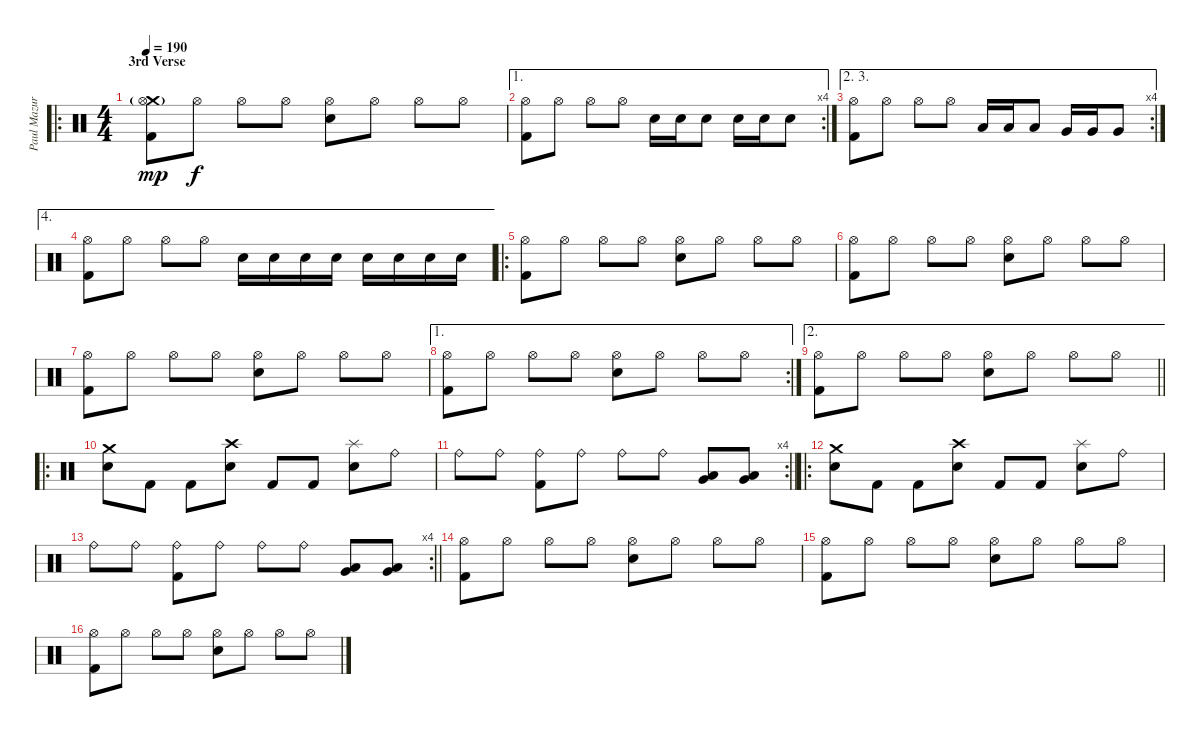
\track ("Paul Mazurkiewicz" "Paul Mazur") {instrument percussion}
\staff {score}
\articulation defaults
\ro
\ts (4 4)
\section ("" "3rd Verse")
\tempo 190
\clef neutral
\ks c
("Crash medium (hit)"{g} "Hi-Hat (open)" "Kick (hit) 2").8{dy mp} "Hi-Hat (open)".8{dy f} "Hi-Hat (open)".8 "Hi-Hat (open)".8 ("Hi-Hat (open)" "Electric Snare (hit)").8 "Hi-Hat (open)".8 "Hi-Hat (open)".8 "Hi-Hat (open)".8 |
\ae 1
\rc 4
("Hi-Hat (open)" "Kick (hit) 2").8 "Hi-Hat (open)".8 "Hi-Hat (open)".8 "Hi-Hat (open)".8 "Electric Snare (hit)".16 "Electric Snare (hit)".16 "Electric Snare (hit)".8 "Electric Snare (hit)".16 "Electric Snare (hit)".16 "Electric Snare (hit)".8 |
\ae (2 3)
\rc 4
("Hi-Hat (open)" "Kick (hit) 2").8 "Hi-Hat (open)".8 "Hi-Hat (open)".8 "Hi-Hat (open)".8 "Low Tom (hit)".16 "Low Tom (hit)".16 "Low Tom (hit)".8 "Very Low Tom (hit)".16 "Very Low Tom (hit)".16 "Very Low Tom (hit)".8 |
\ae 4
("Hi-Hat (open)" "Kick (hit) 2").8 "Hi-Hat (open)".8 "Hi-Hat (open)".8 "Hi-Hat (open)".8 "Electric Snare (hit)".16 "Electric Snare (hit)".16 "Electric Snare (hit)".16 "Electric Snare (hit)".16 "Electric Snare (hit)".16 "Electric Snare (hit)".16 "Electric Snare (hit)".16 "Electric Snare (hit)".16 |
\ro
("Hi-Hat (open)" "Kick (hit) 2").8 "Hi-Hat (open)".8 "Hi-Hat (open)".8 "Hi-Hat (open)".8 ("Hi-Hat (open)" "Electric Snare (hit)").8 "Hi-Hat (open)".8 "Hi-Hat (open)".8 "Hi-Hat (open)".8 |
("Hi-Hat (open)" "Kick (hit) 2").8 "Hi-Hat (open)".8 "Hi-Hat (open)".8 "Hi-Hat (open)".8 ("Hi-Hat (open)" "Electric Snare (hit)").8 "Hi-Hat (open)".8 "Hi-Hat (open)".8 "Hi-Hat (open)".8 |
("Hi-Hat (open)" "Kick (hit) 2").8 "Hi-Hat (open)".8 "Hi-Hat (open)".8 "Hi-Hat (open)".8 ("Hi-Hat (open)" "Electric Snare (hit)").8 "Hi-Hat (open)".8 "Hi-Hat (open)".8 "Hi-Hat (open)".8 |
\ae 1
\rc 2
("Hi-Hat (open)" "Kick (hit) 2").8 "Hi-Hat (open)".8 "Hi-Hat (open)".8 "Hi-Hat (open)".8 ("Hi-Hat (open)" "Electric Snare (hit)").8 "Hi-Hat (open)".8 "Hi-Hat (open)".8 "Hi-Hat (open)".8 |
\ae 2
\barLineRight lightlight
("Hi-Hat (open)" "Kick (hit) 2").8 "Hi-Hat (open)".8 "Hi-Hat (open)".8 "Hi-Hat (open)".8 ("Hi-Hat (open)" "Electric Snare (hit)").8 "Hi-Hat (open)".8 "Hi-Hat (open)".8 "Hi-Hat (open)".8 |
\ro
("Electric Snare (hit)" "Crash medium (hit)").8 "Kick (hit) 2".8 "Kick (hit) 2".8 ("Electric Snare (hit)" "Crash high (hit)").8 "Kick (hit) 2".8 "Kick (hit) 2".8 ("Electric Snare (hit)" "Splash (hit)").8 "Ride (bell)".8 |
\rc 4
\barLineRight lightlight "Ride (bell)".8 "Ride (bell)".8
("Ride (bell)" "Kick (hit) 2").8 "Ride (bell)".8 "Ride (bell)".8 "Ride (bell)".8 ("Low Tom (hit)" "Very Low Tom (hit)").8 ("Low Tom (hit)" "Very Low Tom (hit)").8 |
\ro
("Electric Snare (hit)" "Crash medium (hit)").8 "Kick (hit) 2".8 "Kick (hit) 2".8 ("Electric Snare (hit)" "Crash high (hit)").8 "Kick (hit) 2".8 "Kick (hit) 2".8 ("Electric Snare (hit)" "Splash (hit)").8 "Ride (bell)".8 |
\rc 4
\barLineRight lightlight "Ride (bell)".8 "Ride (bell)".8
("Ride (bell)" "Kick (hit) 2").8 "Ride (bell)".8 "Ride (bell)".8 "Ride (bell)".8 ("Low Tom (hit)" "Very Low Tom (hit)").8 ("Low Tom (hit)" "Very Low Tom (hit)").8 |
("Hi-Hat (open)" "Kick (hit) 2").8 "Hi-Hat (open)".8 "Hi-Hat (open)".8 "Hi-Hat (open)".8 ("Hi-Hat (open)" "Electric Snare (hit)").8 "Hi-Hat (open)".8 "Hi-Hat (open)".8 "Hi-Hat (open)".8 |
("Hi-Hat (open)" "Kick (hit) 2").8 "Hi-Hat (open)".8 "Hi-Hat (open)".8 "Hi-Hat (open)".8 ("Hi-Hat (open)" "Electric Snare (hit)").8 "Hi-Hat (open)".8 "Hi-Hat (open)".8 "Hi-Hat (open)".8 |
("Hi-Hat (open)" "Kick (hit) 2").8 "Hi-Hat (open)".8 "Hi-Hat (open)".8 "Hi-Hat (open)".8 ("Hi-Hat (open)" "Electric Snare (hit)").8 "Hi-Hat (open)".8 "Hi-Hat (open)".8 "Hi-Hat (open)".8
